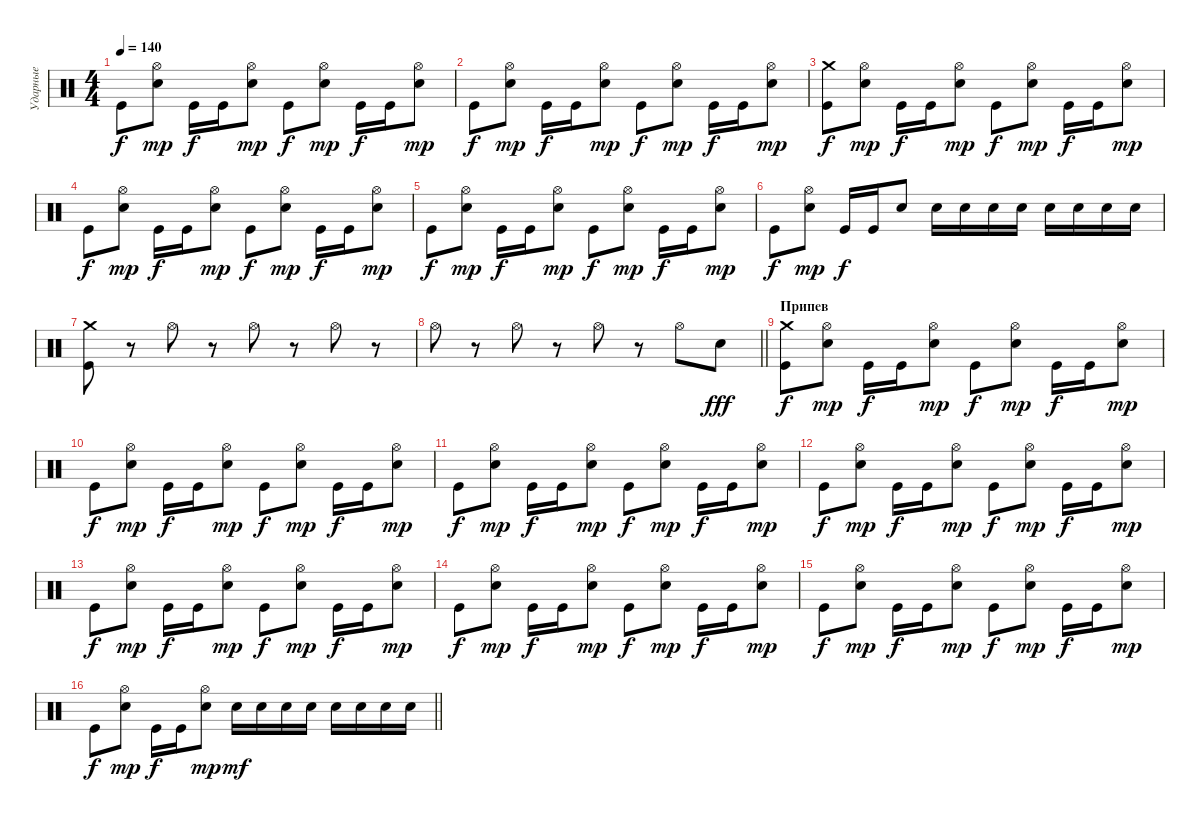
\track ("Ударные" "Ударные") {instrument percussion}
\staff {score}
\articulation defaults
\ts (4 4)
\tempo 140
\clef neutral
\ks c "Kick (hit)".8{dy f}
("Hi-Hat (open)" "Electric Snare (hit)").8{dy mp} "Kick (hit)".16{dy f} "Kick (hit)".16 ("Hi-Hat (open)" "Electric Snare (hit)").8{dy mp} "Kick (hit)".8{dy f} ("Hi-Hat (open)" "Electric Snare (hit)").8{dy mp} "Kick (hit)".16{dy f} "Kick (hit)".16 ("Hi-Hat (open)" "Electric Snare (hit)").8{dy mp} |
"Kick (hit)".8{dy f} ("Hi-Hat (open)" "Electric Snare (hit)").8{dy mp} "Kick (hit)".16{dy f} "Kick (hit)".16 ("Hi-Hat (open)" "Electric Snare (hit)").8{dy mp} "Kick (hit)".8{dy f} ("Hi-Hat (open)" "Electric Snare (hit)").8{dy mp} "Kick (hit)".16{dy f} "Kick (hit)".16 ("Hi-Hat (open)" "Electric Snare (hit)").8{dy mp} |
("Crash medium (hit)" "Kick (hit)").8{dy f} ("Hi-Hat (open)" "Electric Snare (hit)").8{dy mp} "Kick (hit)".16{dy f} "Kick (hit)".16 ("Hi-Hat (open)" "Electric Snare (hit)").8{dy mp} "Kick (hit)".8{dy f} ("Hi-Hat (open)" "Electric Snare (hit)").8{dy mp} "Kick (hit)".16{dy f} "Kick (hit)".16 ("Hi-Hat (open)" "Electric Snare (hit)").8{dy mp} |
"Kick (hit)".8{dy f} ("Hi-Hat (open)" "Electric Snare (hit)").8{dy mp} "Kick (hit)".16{dy f} "Kick (hit)".16 ("Hi-Hat (open)" "Electric Snare (hit)").8{dy mp} "Kick (hit)".8{dy f} ("Hi-Hat (open)" "Electric Snare (hit)").8{dy mp} "Kick (hit)".16{dy f} "Kick (hit)".16 ("Hi-Hat (open)" "Electric Snare (hit)").8{dy mp} |
"Kick (hit)".8{dy f} ("Hi-Hat (open)" "Electric Snare (hit)").8{dy mp} "Kick (hit)".16{dy f} "Kick (hit)".16 ("Hi-Hat (open)" "Electric Snare (hit)").8{dy mp} "Kick (hit)".8{dy f} ("Hi-Hat (open)" "Electric Snare (hit)").8{dy mp} "Kick (hit)".16{dy f} "Kick (hit)".16 ("Hi-Hat (open)" "Electric Snare (hit)").8{dy mp} |
"Kick (hit)".8{dy f} ("Hi-Hat (open)" "Electric Snare (hit)").8{dy mp} "Kick (hit)".16{dy f} "Kick (hit)".16 "Electric Snare (hit)".8 "Electric Snare (hit)".16 "Electric Snare (hit)".16 "Electric Snare (hit)".16 "Electric Snare (hit)".16 "Electric Snare (hit)".16 "Electric Snare (hit)".16 "Electric Snare (hit)".16 "Electric Snare (hit)".16 |
("Crash medium (hit)" "Kick (hit)").8 r.8 "Hi-Hat (open)".8 r.8 "Hi-Hat (open)".8 r.8 "Hi-Hat (open)".8 r.8 |
\barLineRight lightlight "Hi-Hat (open)".8
r.8 "Hi-Hat (open)".8 r.8 "Hi-Hat (open)".8 r.8 "Hi-Hat (open)".8 "Electric Snare (hit)".8{dy fff} |
\section ("" "Припев")
("Crash medium (hit)" "Kick (hit)").8{dy f} ("Hi-Hat (open)" "Electric Snare (hit)").8{dy mp} "Kick (hit)".16{dy f} "Kick (hit)".16 ("Hi-Hat (open)" "Electric Snare (hit)").8{dy mp} "Kick (hit)".8{dy f} ("Hi-Hat (open)" "Electric Snare (hit)").8{dy mp} "Kick (hit)".16{dy f} "Kick (hit)".16 ("Hi-Hat (open)" "Electric Snare (hit)").8{dy mp} |
"Kick (hit)".8{dy f} ("Hi-Hat (open)" "Electric Snare (hit)").8{dy mp} "Kick (hit)".16{dy f} "Kick (hit)".16 ("Hi-Hat (open)" "Electric Snare (hit)").8{dy mp} "Kick (hit)".8{dy f} ("Hi-Hat (open)" "Electric Snare (hit)").8{dy mp} "Kick (hit)".16{dy f} "Kick (hit)".16 ("Hi-Hat (open)" "Electric Snare (hit)").8{dy mp} |
"Kick (hit)".8{dy f} ("Hi-Hat (open)" "Electric Snare (hit)").8{dy mp} "Kick (hit)".16{dy f} "Kick (hit)".16 ("Hi-Hat (open)" "Electric Snare (hit)").8{dy mp} "Kick (hit)".8{dy f} ("Hi-Hat (open)" "Electric Snare (hit)").8{dy mp} "Kick (hit)".16{dy f} "Kick (hit)".16 ("Hi-Hat (open)" "Electric Snare (hit)").8{dy mp} |
"Kick (hit)".8{dy f} ("Hi-Hat (open)" "Electric Snare (hit)").8{dy mp} "Kick (hit)".16{dy f} "Kick (hit)".16 ("Hi-Hat (open)" "Electric Snare (hit)").8{dy mp} "Kick (hit)".8{dy f} ("Hi-Hat (open)" "Electric Snare (hit)").8{dy mp} "Kick (hit)".16{dy f} "Kick (hit)".16 ("Hi-Hat (open)" "Electric Snare (hit)").8{dy mp} |
"Kick (hit)".8{dy f} ("Hi-Hat (open)" "Electric Snare (hit)").8{dy mp} "Kick (hit)".16{dy f} "Kick (hit)".16 ("Hi-Hat (open)" "Electric Snare (hit)").8{dy mp} "Kick (hit)".8{dy f} ("Hi-Hat (open)" "Electric Snare (hit)").8{dy mp} "Kick (hit)".16{dy f} "Kick (hit)".16 ("Hi-Hat (open)" "Electric Snare (hit)").8{dy mp} |
"Kick (hit)".8{dy f} ("Hi-Hat (open)" "Electric Snare (hit)").8{dy mp} "Kick (hit)".16{dy f} "Kick (hit)".16 ("Hi-Hat (open)" "Electric Snare (hit)").8{dy mp} "Kick (hit)".8{dy f} ("Hi-Hat (open)" "Electric Snare (hit)").8{dy mp} "Kick (hit)".16{dy f} "Kick (hit)".16 ("Hi-Hat (open)" "Electric Snare (hit)").8{dy mp} |
"Kick (hit)".8{dy f} ("Hi-Hat (open)" "Electric Snare (hit)").8{dy mp} "Kick (hit)".16{dy f} "Kick (hit)".16 ("Hi-Hat (open)" "Electric Snare (hit)").8{dy mp} "Kick (hit)".8{dy f} ("Hi-Hat (open)" "Electric Snare (hit)").8{dy mp} "Kick (hit)".16{dy f} "Kick (hit)".16 ("Hi-Hat (open)" "Electric Snare (hit)").8{dy mp} |
\barLineRight lightlight "Kick (hit)".8{dy f}
("Hi-Hat (open)" "Electric Snare (hit)").8{dy mp} "Kick (hit)".16{dy f} "Kick (hit)".16 ("Hi-Hat (open)" "Electric Snare (hit)").8{dy mp} "Electric Snare (hit)".16{dy mf} "Electric Snare (hit)".16 "Electric Snare (hit)".16 "Electric Snare (hit)".16 "Electric Snare (hit)".16 "Electric Snare (hit)".16 "Electric Snare (hit)".16 "Electric Snare (hit)".16
